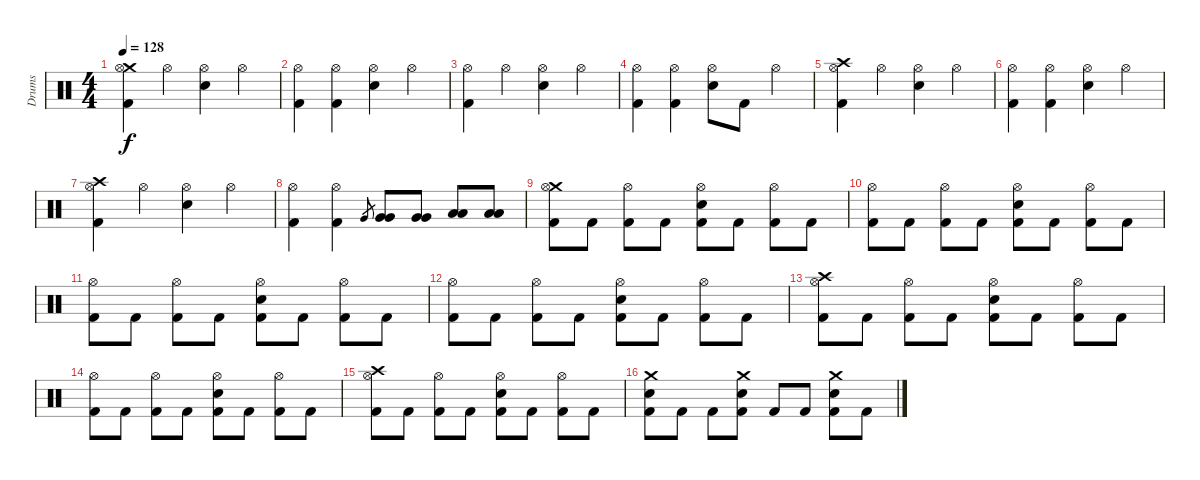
\track ("Drums" "Drums") {instrument percussion}
\staff {score}
\articulation defaults
\ts (4 4)
\tempo 128
\clef neutral
\ks c
("Crash medium (hit)" "Hi-Hat (open)" "Kick (hit) 2").4{dy f} "Hi-Hat (open)".4 ("Hi-Hat (open)" "Electric Snare (hit)").4 "Hi-Hat (open)".4 |
("Hi-Hat (open)" "Kick (hit) 2").4 ("Hi-Hat (open)" "Kick (hit) 2").4 ("Hi-Hat (open)" "Electric Snare (hit)").4 "Hi-Hat (open)".4 |
("Hi-Hat (open)" "Kick (hit) 2").4 "Hi-Hat (open)".4 ("Hi-Hat (open)" "Electric Snare (hit)").4 "Hi-Hat (open)".4 |
("Hi-Hat (open)" "Kick (hit) 2").4 ("Hi-Hat (open)" "Kick (hit) 2").4 ("Hi-Hat (open)" "Electric Snare (hit)").8 "Kick (hit) 2".8 "Hi-Hat (open)".4 |
("Crash high (hit)" "Hi-Hat (open)" "Kick (hit) 2").4 "Hi-Hat (open)".4 ("Hi-Hat (open)" "Electric Snare (hit)").4 "Hi-Hat (open)".4 |
("Hi-Hat (open)" "Kick (hit) 2").4 ("Hi-Hat (open)" "Kick (hit) 2").4 ("Hi-Hat (open)" "Electric Snare (hit)").4 "Hi-Hat (open)".4 |
("Crash high (hit)" "Hi-Hat (open)" "Kick (hit) 2").4 "Hi-Hat (open)".4 ("Hi-Hat (open)" "Electric Snare (hit)").4 "Hi-Hat (open)".4 |
("Hi-Hat (open)" "Kick (hit) 2").4 ("Hi-Hat (open)" "Kick (hit) 2").4 "Very Low Tom (hit)".8{gr} ("Very Low Tom (hit)" "Very Low Tom (hit)").8 ("Very Low Tom (hit)" "Very Low Tom (hit)").8 ("Low Floor Tom (hit)" "Low Floor Tom (hit)").8 ("Low Floor Tom (hit)" "Low Floor Tom (hit)").8 |
("Crash medium (hit)" "Hi-Hat (open)" "Kick (hit) 2").8 "Kick (hit) 2".8 ("Hi-Hat (open)" "Kick (hit) 2").8 "Kick (hit) 2".8 ("Hi-Hat (open)" "Electric Snare (hit)" "Kick (hit) 2").8 "Kick (hit) 2".8 ("Hi-Hat (open)" "Kick (hit) 2").8 "Kick (hit) 2".8 |
("Hi-Hat (open)" "Kick (hit) 2").8 "Kick (hit) 2".8 ("Hi-Hat (open)" "Kick (hit) 2").8 "Kick (hit) 2".8 ("Hi-Hat (open)" "Electric Snare (hit)" "Kick (hit) 2").8 "Kick (hit) 2".8 ("Hi-Hat (open)" "Kick (hit) 2").8 "Kick (hit) 2".8 |
("Hi-Hat (open)" "Kick (hit) 2").8 "Kick (hit) 2".8 ("Hi-Hat (open)" "Kick (hit) 2").8 "Kick (hit) 2".8 ("Hi-Hat (open)" "Electric Snare (hit)" "Kick (hit) 2").8 "Kick (hit) 2".8 ("Hi-Hat (open)" "Kick (hit) 2").8 "Kick (hit) 2".8 |
("Hi-Hat (open)" "Kick (hit) 2").8 "Kick (hit) 2".8 ("Hi-Hat (open)" "Kick (hit) 2").8 "Kick (hit) 2".8 ("Hi-Hat (open)" "Electric Snare (hit)" "Kick (hit) 2").8 "Kick (hit) 2".8 ("Hi-Hat (open)" "Kick (hit) 2").8 "Kick (hit) 2".8 |
("Crash high (hit)" "Hi-Hat (open)" "Kick (hit) 2").8 "Kick (hit) 2".8 ("Hi-Hat (open)" "Kick (hit) 2").8 "Kick (hit) 2".8 ("Hi-Hat (open)" "Electric Snare (hit)" "Kick (hit) 2").8 "Kick (hit) 2".8 ("Hi-Hat (open)" "Kick (hit) 2").8 "Kick (hit) 2".8 |
("Hi-Hat (open)" "Kick (hit) 2").8 "Kick (hit) 2".8 ("Hi-Hat (open)" "Kick (hit) 2").8 "Kick (hit) 2".8 ("Hi-Hat (open)" "Electric Snare (hit)" "Kick (hit) 2").8 "Kick (hit) 2".8 ("Hi-Hat (open)" "Kick (hit) 2").8 "Kick (hit) 2".8 |
("Crash high (hit)" "Hi-Hat (open)" "Kick (hit) 2").8 "Kick (hit) 2".8 ("Hi-Hat (open)" "Kick (hit) 2").8 "Kick (hit) 2".8 ("Hi-Hat (open)" "Electric Snare (hit)" "Kick (hit) 2").8 "Kick (hit) 2".8 ("Hi-Hat (open)" "Kick (hit) 2").8 "Kick (hit) 2".8 |
("Crash medium (hit)" "Electric Snare (hit)" "Kick (hit) 2").8 "Kick (hit) 2".8 "Kick (hit) 2".8 ("Crash medium (hit)" "Electric Snare (hit)" "Kick (hit) 2").8 "Kick (hit) 2".8 "Kick (hit) 2".8 ("Crash medium (hit)" "Electric Snare (hit)" "Kick (hit) 2").8 "Kick (hit) 2".8
